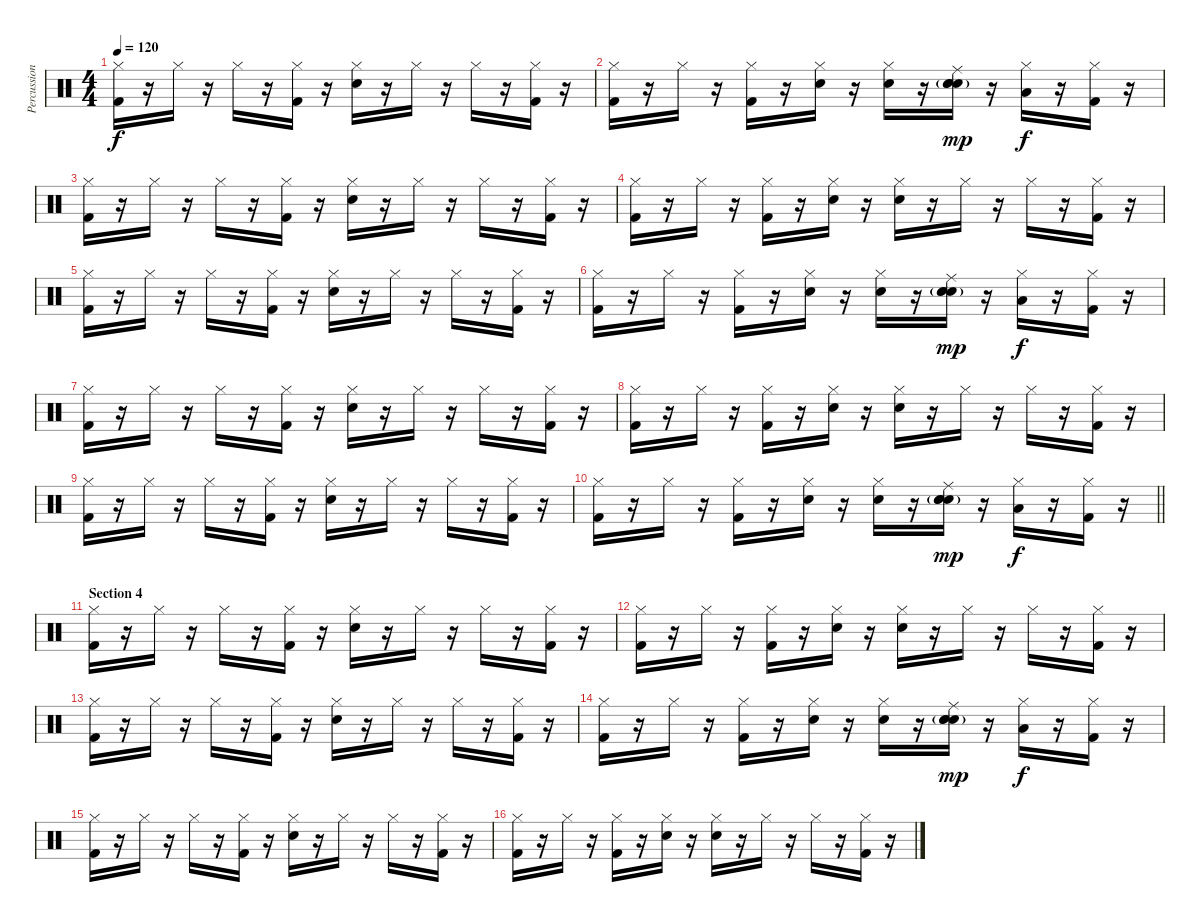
\track ("Percussion" "Percussion") {instrument percussion}
\staff {score}
\articulation defaults
\ts (4 4)
\tempo 120
\clef neutral
\ks c
("Hi-Hat (closed)" "Kick (hit) 2").16{dy f} r.16 "Hi-Hat (closed)".16 r.16 "Hi-Hat (closed)".16 r.16 ("Hi-Hat (closed)" "Kick (hit) 2").16 r.16 ("Hi-Hat (closed)" "Snare (hit) 2").16 r.16 "Hi-Hat (closed)".16 r.16 "Hi-Hat (closed)".16 r.16 ("Hi-Hat (closed)" "Kick (hit) 2").16 r.16 |
("Hi-Hat (closed)" "Kick (hit) 2").16 r.16 "Hi-Hat (closed)".16 r.16 ("Hi-Hat (closed)" "Kick (hit) 2").16 r.16 ("Hi-Hat (closed)" "Snare (hit)").16 r.16 ("Hi-Hat (closed)" "Snare (hit) 2").16 r.16 ("Ride (middle)" "Snare (hit)"{g} "Electric Snare (hit)"{g} "Snare (hit) 2"{g}).16{dy mp} r.16 ("Hi-Hat (closed)" "Low Floor Tom (hit)").16{dy f} r.16 ("Hi-Hat (closed)" "Kick (hit) 2").16 r.16 |
("Hi-Hat (closed)" "Kick (hit) 2").16 r.16 "Hi-Hat (closed)".16 r.16 "Hi-Hat (closed)".16 r.16 ("Hi-Hat (closed)" "Kick (hit) 2").16 r.16 ("Hi-Hat (closed)" "Snare (hit) 2").16 r.16 "Hi-Hat (closed)".16 r.16 "Hi-Hat (closed)".16 r.16 ("Hi-Hat (closed)" "Kick (hit) 2").16 r.16 |
("Hi-Hat (closed)" "Kick (hit) 2").16 r.16 "Hi-Hat (closed)".16 r.16 ("Hi-Hat (closed)" "Kick (hit) 2").16 r.16 ("Hi-Hat (closed)" "Snare (hit)").16 r.16 ("Hi-Hat (closed)" "Snare (hit) 2").16 r.16 "Hi-Hat (closed)".16 r.16 "Hi-Hat (closed)".16 r.16 ("Hi-Hat (closed)" "Kick (hit) 2").16 r.16 |
("Hi-Hat (closed)" "Kick (hit) 2").16 r.16 "Hi-Hat (closed)".16 r.16 "Hi-Hat (closed)".16 r.16 ("Hi-Hat (closed)" "Kick (hit) 2").16 r.16 ("Hi-Hat (closed)" "Snare (hit) 2").16 r.16 "Hi-Hat (closed)".16 r.16 "Hi-Hat (closed)".16 r.16 ("Hi-Hat (closed)" "Kick (hit) 2").16 r.16 |
("Hi-Hat (closed)" "Kick (hit) 2").16 r.16 "Hi-Hat (closed)".16 r.16 ("Hi-Hat (closed)" "Kick (hit) 2").16 r.16 ("Hi-Hat (closed)" "Snare (hit)").16 r.16 ("Hi-Hat (closed)" "Snare (hit) 2").16 r.16 ("Ride (middle)" "Snare (hit)"{g} "Electric Snare (hit)"{g} "Snare (hit) 2"{g}).16{dy mp} r.16 ("Hi-Hat (closed)" "Low Floor Tom (hit)").16{dy f} r.16 ("Hi-Hat (closed)" "Kick (hit) 2").16 r.16 |
("Hi-Hat (closed)" "Kick (hit) 2").16 r.16 "Hi-Hat (closed)".16 r.16 "Hi-Hat (closed)".16 r.16 ("Hi-Hat (closed)" "Kick (hit) 2").16 r.16 ("Hi-Hat (closed)" "Snare (hit) 2").16 r.16 "Hi-Hat (closed)".16 r.16 "Hi-Hat (closed)".16 r.16 ("Hi-Hat (closed)" "Kick (hit) 2").16 r.16 |
("Hi-Hat (closed)" "Kick (hit) 2").16 r.16 "Hi-Hat (closed)".16 r.16 ("Hi-Hat (closed)" "Kick (hit) 2").16 r.16 ("Hi-Hat (closed)" "Snare (hit)").16 r.16 ("Hi-Hat (closed)" "Snare (hit) 2").16 r.16 "Hi-Hat (closed)".16 r.16 "Hi-Hat (closed)".16 r.16 ("Hi-Hat (closed)" "Kick (hit) 2").16 r.16 |
("Hi-Hat (closed)" "Kick (hit) 2").16 r.16 "Hi-Hat (closed)".16 r.16 "Hi-Hat (closed)".16 r.16 ("Hi-Hat (closed)" "Kick (hit) 2").16 r.16 ("Hi-Hat (closed)" "Snare (hit) 2").16 r.16 "Hi-Hat (closed)".16 r.16 "Hi-Hat (closed)".16 r.16 ("Hi-Hat (closed)" "Kick (hit) 2").16 r.16 |
\barLineRight lightlight
("Hi-Hat (closed)" "Kick (hit) 2").16 r.16 "Hi-Hat (closed)".16 r.16 ("Hi-Hat (closed)" "Kick (hit) 2").16 r.16 ("Hi-Hat (closed)" "Snare (hit)").16 r.16 ("Hi-Hat (closed)" "Snare (hit) 2").16 r.16 ("Ride (middle)" "Snare (hit)"{g} "Electric Snare (hit)"{g} "Snare (hit) 2"{g}).16{dy mp} r.16 ("Hi-Hat (closed)" "Low Floor Tom (hit)").16{dy f} r.16 ("Hi-Hat (closed)" "Kick (hit) 2").16 r.16 |
\section ("" "Section 4")
("Hi-Hat (closed)" "Kick (hit) 2").16 r.16 "Hi-Hat (closed)".16 r.16 "Hi-Hat (closed)".16 r.16 ("Hi-Hat (closed)" "Kick (hit) 2").16 r.16 ("Hi-Hat (closed)" "Snare (hit) 2").16 r.16 "Hi-Hat (closed)".16 r.16 "Hi-Hat (closed)".16 r.16 ("Hi-Hat (closed)" "Kick (hit) 2").16 r.16 |
("Hi-Hat (closed)" "Kick (hit) 2").16 r.16 "Hi-Hat (closed)".16 r.16 ("Hi-Hat (closed)" "Kick (hit) 2").16 r.16 ("Hi-Hat (closed)" "Snare (hit)").16 r.16 ("Hi-Hat (closed)" "Snare (hit) 2").16 r.16 "Hi-Hat (closed)".16 r.16 "Hi-Hat (closed)".16 r.16 ("Hi-Hat (closed)" "Kick (hit) 2").16 r.16 |
("Hi-Hat (closed)" "Kick (hit) 2").16 r.16 "Hi-Hat (closed)".16 r.16 "Hi-Hat (closed)".16 r.16 ("Hi-Hat (closed)" "Kick (hit) 2").16 r.16 ("Hi-Hat (closed)" "Snare (hit) 2").16 r.16 "Hi-Hat (closed)".16 r.16 "Hi-Hat (closed)".16 r.16 ("Hi-Hat (closed)" "Kick (hit) 2").16 r.16 |
("Hi-Hat (closed)" "Kick (hit) 2").16 r.16 "Hi-Hat (closed)".16 r.16 ("Hi-Hat (closed)" "Kick (hit) 2").16 r.16 ("Hi-Hat (closed)" "Snare (hit)").16 r.16 ("Hi-Hat (closed)" "Snare (hit) 2").16 r.16 ("Ride (middle)" "Snare (hit)"{g} "Electric Snare (hit)"{g} "Snare (hit) 2"{g}).16{dy mp} r.16 ("Hi-Hat (closed)" "Low Floor Tom (hit)").16{dy f} r.16 ("Hi-Hat (closed)" "Kick (hit) 2").16 r.16 |
("Hi-Hat (closed)" "Kick (hit) 2").16 r.16 "Hi-Hat (closed)".16 r.16 "Hi-Hat (closed)".16 r.16 ("Hi-Hat (closed)" "Kick (hit) 2").16 r.16 ("Hi-Hat (closed)" "Snare (hit) 2").16 r.16 "Hi-Hat (closed)".16 r.16 "Hi-Hat (closed)".16 r.16 ("Hi-Hat (closed)" "Kick (hit) 2").16 r.16 |
("Hi-Hat (closed)" "Kick (hit) 2").16 r.16 "Hi-Hat (closed)".16 r.16 ("Hi-Hat (closed)" "Kick (hit) 2").16 r.16 ("Hi-Hat (closed)" "Snare (hit)").16 r.16 ("Hi-Hat (closed)" "Snare (hit) 2").16 r.16 "Hi-Hat (closed)".16 r.16 "Hi-Hat (closed)".16 r.16 ("Hi-Hat (closed)" "Kick (hit) 2").16 r.16
